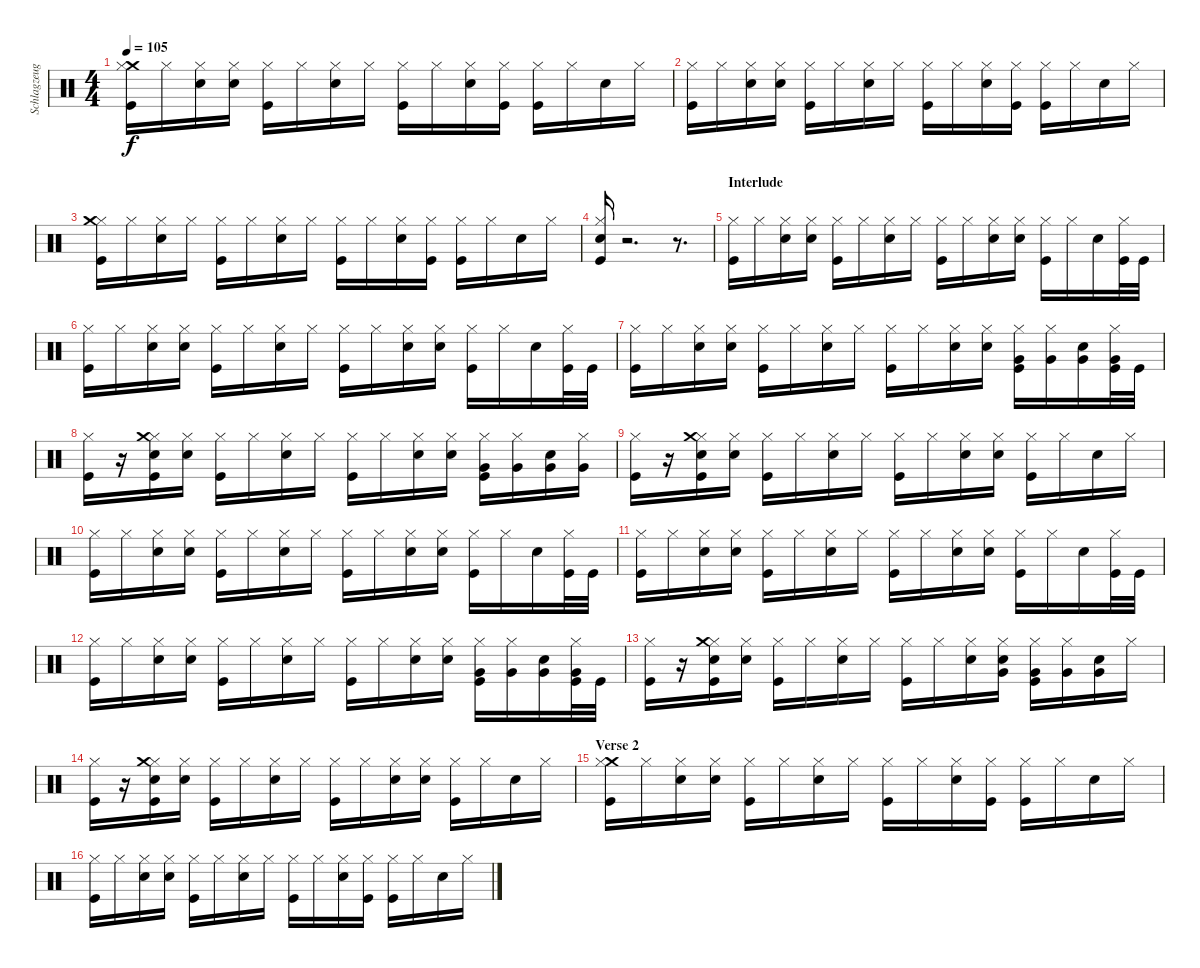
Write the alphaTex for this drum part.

\track ("Schlagzeug - Bela B." "Schlagzeug") {instrument percussion}
\staff {score}
\articulation defaults
\ts (4 4)
\tempo 105
\clef neutral
\ks c
("Crash medium (hit)" "Kick (hit)" "Hi-Hat (closed)").16{dy f} "Hi-Hat (closed)".16 ("Hi-Hat (closed)" "Electric Snare (hit)").16 ("Hi-Hat (closed)" "Electric Snare (hit)").16 ("Hi-Hat (closed)" "Kick (hit)").16 "Hi-Hat (closed)".16 ("Electric Snare (hit)" "Hi-Hat (closed)").16 "Hi-Hat (closed)".16 ("Kick (hit)" "Hi-Hat (closed)").16 "Hi-Hat (closed)".16 ("Electric Snare (hit)" "Hi-Hat (closed)").16 ("Hi-Hat (closed)" "Kick (hit)").16 ("Hi-Hat (closed)" "Kick (hit)").16 "Hi-Hat (closed)".16 "Electric Snare (hit)".16 "Hi-Hat (closed)".16 |
("Kick (hit)" "Hi-Hat (closed)").16 "Hi-Hat (closed)".16 ("Hi-Hat (closed)" "Electric Snare (hit)").16 ("Hi-Hat (closed)" "Electric Snare (hit)").16 ("Hi-Hat (closed)" "Kick (hit)").16 "Hi-Hat (closed)".16 ("Electric Snare (hit)" "Hi-Hat (closed)").16 "Hi-Hat (closed)".16 ("Kick (hit)" "Hi-Hat (closed)").16 "Hi-Hat (closed)".16 ("Electric Snare (hit)" "Hi-Hat (closed)").16 ("Hi-Hat (closed)" "Kick (hit)").16 ("Hi-Hat (closed)" "Kick (hit)").16 "Hi-Hat (closed)".16 "Electric Snare (hit)".16 "Hi-Hat (closed)".16 |
("Kick (hit)" "Hi-Hat (closed)" "Crash medium (hit)").16 "Hi-Hat (closed)".16 ("Hi-Hat (closed)" "Electric Snare (hit)").16 "Hi-Hat (closed)".16 ("Hi-Hat (closed)" "Kick (hit)").16 "Hi-Hat (closed)".16 ("Electric Snare (hit)" "Hi-Hat (closed)").16 "Hi-Hat (closed)".16 ("Kick (hit)" "Hi-Hat (closed)").16 "Hi-Hat (closed)".16 ("Electric Snare (hit)" "Hi-Hat (closed)").16 ("Hi-Hat (closed)" "Kick (hit)").16 ("Kick (hit)" "Hi-Hat (closed)").16 "Hi-Hat (closed)".16 "Electric Snare (hit)".16 "Hi-Hat (closed)".16 |
("Kick (hit)" "Electric Snare (hit)" "Hi-Hat (closed)").16 r.2{d} r.8{d} |
\section ("" "Interlude")
("Kick (hit)" "Hi-Hat (closed)").16 "Hi-Hat (closed)".16 ("Electric Snare (hit)" "Hi-Hat (closed)").16 ("Electric Snare (hit)" "Hi-Hat (closed)").16 ("Kick (hit)" "Hi-Hat (closed)").16 "Hi-Hat (closed)".16 ("Electric Snare (hit)" "Hi-Hat (closed)").16 "Hi-Hat (closed)".16 ("Kick (hit)" "Hi-Hat (closed)").16 "Hi-Hat (closed)".16 ("Electric Snare (hit)" "Hi-Hat (closed)").16 ("Electric Snare (hit)" "Hi-Hat (closed)").16 ("Kick (hit)" "Hi-Hat (closed)").16 "Hi-Hat (closed)".16 "Electric Snare (hit)".16 ("Hi-Hat (closed)" "Kick (hit)").32 "Kick (hit)".32 |
("Kick (hit)" "Hi-Hat (closed)").16 "Hi-Hat (closed)".16 ("Electric Snare (hit)" "Hi-Hat (closed)").16 ("Electric Snare (hit)" "Hi-Hat (closed)").16 ("Kick (hit)" "Hi-Hat (closed)").16 "Hi-Hat (closed)".16 ("Electric Snare (hit)" "Hi-Hat (closed)").16 "Hi-Hat (closed)".16 ("Kick (hit)" "Hi-Hat (closed)").16 "Hi-Hat (closed)".16 ("Electric Snare (hit)" "Hi-Hat (closed)").16 ("Electric Snare (hit)" "Hi-Hat (closed)").16 ("Kick (hit)" "Hi-Hat (closed)").16 "Hi-Hat (closed)".16 "Electric Snare (hit)".16 ("Hi-Hat (closed)" "Kick (hit)").32 "Kick (hit)".32 |
("Kick (hit)" "Hi-Hat (closed)").16 "Hi-Hat (closed)".16 ("Electric Snare (hit)" "Hi-Hat (closed)").16 ("Electric Snare (hit)" "Hi-Hat (closed)").16 ("Kick (hit)" "Hi-Hat (closed)").16 "Hi-Hat (closed)".16 ("Electric Snare (hit)" "Hi-Hat (closed)").16 "Hi-Hat (closed)".16 ("Kick (hit)" "Hi-Hat (closed)").16 "Hi-Hat (closed)".16 ("Electric Snare (hit)" "Hi-Hat (closed)").16 ("Electric Snare (hit)" "Hi-Hat (closed)").16 ("Kick (hit)" "Hi-Hat (closed)" "Very Low Tom (hit)").16 ("Hi-Hat (closed)" "Very Low Tom (hit)").16 ("Electric Snare (hit)" "Very Low Tom (hit)").16 ("Hi-Hat (closed)" "Kick (hit)" "Very Low Tom (hit)").32 "Kick (hit)".32 |
("Kick (hit)" "Hi-Hat (closed)").16 r.16 ("Electric Snare (hit)" "Hi-Hat (closed)" "Kick (hit)" "Crash medium (hit)").16 ("Electric Snare (hit)" "Hi-Hat (closed)").16 ("Kick (hit)" "Hi-Hat (closed)").16 "Hi-Hat (closed)".16 ("Electric Snare (hit)" "Hi-Hat (closed)").16 "Hi-Hat (closed)".16 ("Kick (hit)" "Hi-Hat (closed)").16 "Hi-Hat (closed)".16 ("Electric Snare (hit)" "Hi-Hat (closed)").16 ("Electric Snare (hit)" "Hi-Hat (closed)").16 ("Kick (hit)" "Hi-Hat (closed)" "Very Low Tom (hit)").16 ("Hi-Hat (closed)" "Very Low Tom (hit)").16 ("Electric Snare (hit)" "Very Low Tom (hit)").16 ("Hi-Hat (closed)" "Very Low Tom (hit)").16 |
("Kick (hit)" "Hi-Hat (closed)").16 r.16 ("Electric Snare (hit)" "Hi-Hat (closed)" "Kick (hit)" "Crash medium (hit)").16 ("Electric Snare (hit)" "Hi-Hat (closed)").16 ("Kick (hit)" "Hi-Hat (closed)").16 "Hi-Hat (closed)".16 ("Electric Snare (hit)" "Hi-Hat (closed)").16 "Hi-Hat (closed)".16 ("Kick (hit)" "Hi-Hat (closed)").16 "Hi-Hat (closed)".16 ("Electric Snare (hit)" "Hi-Hat (closed)").16 ("Electric Snare (hit)" "Hi-Hat (closed)").16 ("Kick (hit)" "Hi-Hat (closed)").16 "Hi-Hat (closed)".16 "Electric Snare (hit)".16 "Hi-Hat (closed)".16 |
("Kick (hit)" "Hi-Hat (closed)").16 "Hi-Hat (closed)".16 ("Electric Snare (hit)" "Hi-Hat (closed)").16 ("Electric Snare (hit)" "Hi-Hat (closed)").16 ("Kick (hit)" "Hi-Hat (closed)").16 "Hi-Hat (closed)".16 ("Electric Snare (hit)" "Hi-Hat (closed)").16 "Hi-Hat (closed)".16 ("Kick (hit)" "Hi-Hat (closed)").16 "Hi-Hat (closed)".16 ("Electric Snare (hit)" "Hi-Hat (closed)").16 ("Electric Snare (hit)" "Hi-Hat (closed)").16 ("Kick (hit)" "Hi-Hat (closed)").16 "Hi-Hat (closed)".16 "Electric Snare (hit)".16 ("Hi-Hat (closed)" "Kick (hit)").32 "Kick (hit)".32 |
("Kick (hit)" "Hi-Hat (closed)").16 "Hi-Hat (closed)".16 ("Electric Snare (hit)" "Hi-Hat (closed)").16 ("Electric Snare (hit)" "Hi-Hat (closed)").16 ("Kick (hit)" "Hi-Hat (closed)").16 "Hi-Hat (closed)".16 ("Electric Snare (hit)" "Hi-Hat (closed)").16 "Hi-Hat (closed)".16 ("Kick (hit)" "Hi-Hat (closed)").16 "Hi-Hat (closed)".16 ("Electric Snare (hit)" "Hi-Hat (closed)").16 ("Electric Snare (hit)" "Hi-Hat (closed)").16 ("Kick (hit)" "Hi-Hat (closed)").16 "Hi-Hat (closed)".16 "Electric Snare (hit)".16 ("Hi-Hat (closed)" "Kick (hit)").32 "Kick (hit)".32 |
("Kick (hit)" "Hi-Hat (closed)").16 "Hi-Hat (closed)".16 ("Electric Snare (hit)" "Hi-Hat (closed)").16 ("Electric Snare (hit)" "Hi-Hat (closed)").16 ("Kick (hit)" "Hi-Hat (closed)").16 "Hi-Hat (closed)".16 ("Electric Snare (hit)" "Hi-Hat (closed)").16 "Hi-Hat (closed)".16 ("Kick (hit)" "Hi-Hat (closed)").16 "Hi-Hat (closed)".16 ("Electric Snare (hit)" "Hi-Hat (closed)").16 ("Electric Snare (hit)" "Hi-Hat (closed)").16 ("Kick (hit)" "Hi-Hat (closed)" "Very Low Tom (hit)").16 ("Hi-Hat (closed)" "Very Low Tom (hit)").16 ("Electric Snare (hit)" "Very Low Tom (hit)").16 ("Hi-Hat (closed)" "Kick (hit)" "Very Low Tom (hit)").32 "Kick (hit)".32 |
("Kick (hit)" "Hi-Hat (closed)").16 r.16 ("Electric Snare (hit)" "Hi-Hat (closed)" "Kick (hit)" "Crash medium (hit)").16 ("Electric Snare (hit)" "Hi-Hat (closed)").16 ("Kick (hit)" "Hi-Hat (closed)").16 "Hi-Hat (closed)".16 ("Electric Snare (hit)" "Hi-Hat (closed)").16 "Hi-Hat (closed)".16 ("Kick (hit)" "Hi-Hat (closed)").16 "Hi-Hat (closed)".16 ("Electric Snare (hit)" "Hi-Hat (closed)").16 ("Electric Snare (hit)" "Hi-Hat (closed)" "Very Low Tom (hit)").16 ("Kick (hit)" "Hi-Hat (closed)" "Very Low Tom (hit)").16 ("Hi-Hat (closed)" "Very Low Tom (hit)").16 ("Electric Snare (hit)" "Very Low Tom (hit)").16 "Hi-Hat (closed)".16 |
("Kick (hit)" "Hi-Hat (closed)").16 r.16 ("Electric Snare (hit)" "Hi-Hat (closed)" "Kick (hit)" "Crash medium (hit)").16 ("Electric Snare (hit)" "Hi-Hat (closed)").16 ("Kick (hit)" "Hi-Hat (closed)").16 "Hi-Hat (closed)".16 ("Electric Snare (hit)" "Hi-Hat (closed)").16 "Hi-Hat (closed)".16 ("Kick (hit)" "Hi-Hat (closed)").16 "Hi-Hat (closed)".16 ("Electric Snare (hit)" "Hi-Hat (closed)").16 ("Electric Snare (hit)" "Hi-Hat (closed)").16 ("Kick (hit)" "Hi-Hat (closed)").16 "Hi-Hat (closed)".16 "Electric Snare (hit)".16 "Hi-Hat (closed)".16 |
\section ("" "Verse 2")
("Crash medium (hit)" "Kick (hit)" "Hi-Hat (closed)").16 "Hi-Hat (closed)".16 ("Hi-Hat (closed)" "Electric Snare (hit)").16 ("Hi-Hat (closed)" "Electric Snare (hit)").16 ("Hi-Hat (closed)" "Kick (hit)").16 "Hi-Hat (closed)".16 ("Electric Snare (hit)" "Hi-Hat (closed)").16 "Hi-Hat (closed)".16 ("Kick (hit)" "Hi-Hat (closed)").16 "Hi-Hat (closed)".16 ("Electric Snare (hit)" "Hi-Hat (closed)").16 ("Hi-Hat (closed)" "Kick (hit)").16 ("Hi-Hat (closed)" "Kick (hit)").16 "Hi-Hat (closed)".16 "Electric Snare (hit)".16 "Hi-Hat (closed)".16 |
("Kick (hit)" "Hi-Hat (closed)").16 "Hi-Hat (closed)".16 ("Hi-Hat (closed)" "Electric Snare (hit)").16 ("Hi-Hat (closed)" "Electric Snare (hit)").16 ("Hi-Hat (closed)" "Kick (hit)").16 "Hi-Hat (closed)".16 ("Electric Snare (hit)" "Hi-Hat (closed)").16 "Hi-Hat (closed)".16 ("Kick (hit)" "Hi-Hat (closed)").16 "Hi-Hat (closed)".16 ("Electric Snare (hit)" "Hi-Hat (closed)").16 ("Hi-Hat (closed)" "Kick (hit)").16 ("Hi-Hat (closed)" "Kick (hit)").16 "Hi-Hat (closed)".16 "Electric Snare (hit)".16 "Hi-Hat (closed)".16
